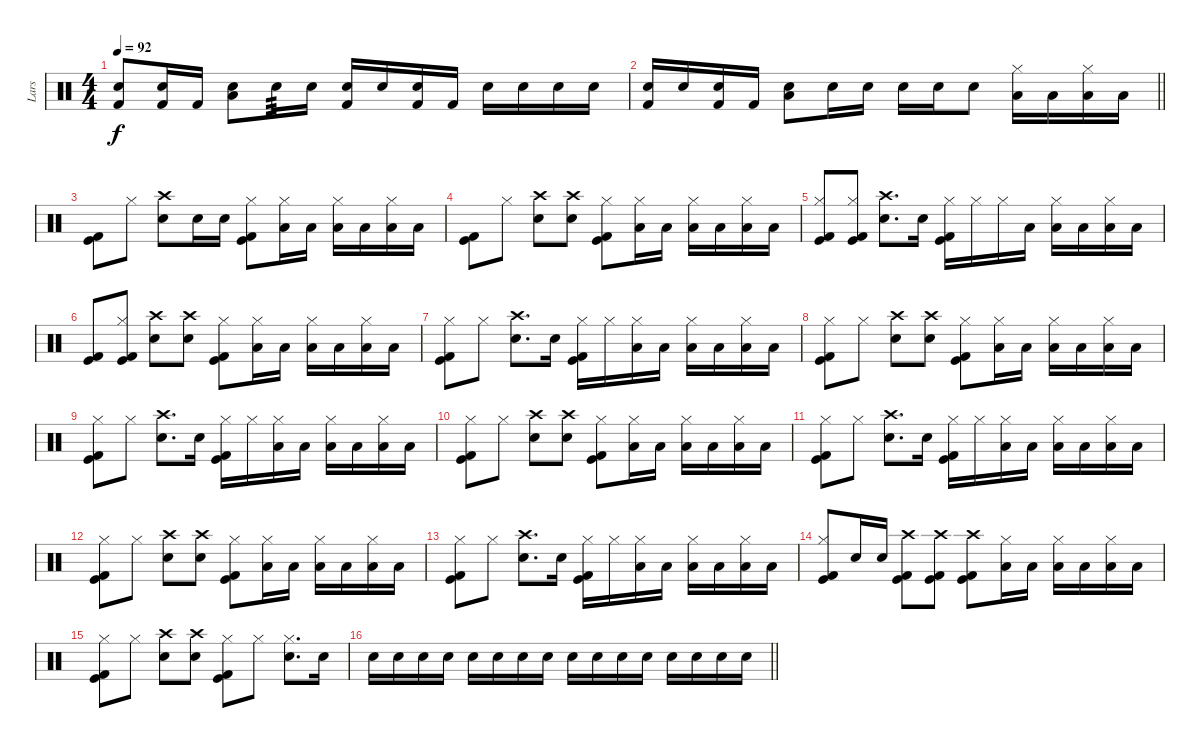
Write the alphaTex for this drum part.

\track ("Lars" "Lars") {instrument percussion}
\staff {score}
\articulation defaults
\ts (4 4)
\tempo 92
\clef neutral
\ks c
("Electric Snare (hit)" "Kick (hit) 2").8{dy f} ("Electric Snare (hit)" "Kick (hit) 2").16 "Kick (hit) 2".16 ("Electric Snare (hit)" "Low Tom (hit)").8 "Electric Snare (hit)".16{tp 3} "Electric Snare (hit)".16 ("Electric Snare (hit)" "Kick (hit) 2").16 "Electric Snare (hit)".16 ("Electric Snare (hit)" "Kick (hit) 2").16 "Kick (hit) 2".16 "Electric Snare (hit)".16 "Electric Snare (hit)".16 "Electric Snare (hit)".16 "Electric Snare (hit)".16 |
\barLineRight lightlight
("Electric Snare (hit)" "Kick (hit) 2").16 "Electric Snare (hit)".16 ("Electric Snare (hit)" "Kick (hit) 2").16 "Kick (hit) 2".16 ("Electric Snare (hit)" "Low Tom (hit)").8 "Electric Snare (hit)".16 "Electric Snare (hit)".16 "Electric Snare (hit)".16 "Electric Snare (hit)".16 "Electric Snare (hit)".8 ("Hi-Hat (closed)" "Low Floor Tom (hit)").16 "Low Floor Tom (hit)".16 ("Hi-Hat (closed)" "Low Floor Tom (hit)").16 "Low Floor Tom (hit)".16 |
\section ("" "")
("Kick (hit)" "Kick (hit) 2").8 "Hi-Hat (closed)".8 ("Crash high (hit)" "Electric Snare (hit)").8 "Electric Snare (hit)".16 "Electric Snare (hit)".16 ("Hi-Hat (closed)" "Kick (hit)" "Kick (hit) 2").8 ("Hi-Hat (closed)" "Low Floor Tom (hit)").16 "Low Floor Tom (hit)".16 ("Hi-Hat (closed)" "Low Floor Tom (hit)").16 "Low Floor Tom (hit)".16 ("Hi-Hat (closed)" "Low Floor Tom (hit)").16 "Low Floor Tom (hit)".16 |
("Kick (hit)" "Kick (hit) 2").8 "Hi-Hat (closed)".8 ("Crash high (hit)" "Electric Snare (hit)").8 ("Crash high (hit)" "Electric Snare (hit)").8 ("Hi-Hat (closed)" "Kick (hit)" "Kick (hit) 2").8 ("Hi-Hat (closed)" "Low Floor Tom (hit)").16 "Low Floor Tom (hit)".16 ("Hi-Hat (closed)" "Low Floor Tom (hit)").16 "Low Floor Tom (hit)".16 ("Hi-Hat (closed)" "Low Floor Tom (hit)").16 "Low Floor Tom (hit)".16 |
("Hi-Hat (closed)" "Kick (hit)" "Kick (hit) 2").8 ("Hi-Hat (closed)" "Kick (hit)" "Kick (hit) 2").8 ("Crash high (hit)" "Electric Snare (hit)").8{d} "Electric Snare (hit)".16 ("Hi-Hat (closed)" "Kick (hit)" "Kick (hit) 2").16 "Hi-Hat (closed)".16 "Hi-Hat (closed)".16 "Low Floor Tom (hit)".16 ("Hi-Hat (closed)" "Low Floor Tom (hit)").16 "Low Floor Tom (hit)".16 ("Hi-Hat (closed)" "Low Floor Tom (hit)").16 "Low Floor Tom (hit)".16 |
("Kick (hit)" "Kick (hit) 2").8 ("Hi-Hat (closed)" "Kick (hit)" "Kick (hit) 2").8 ("Crash high (hit)" "Electric Snare (hit)").8 ("Crash high (hit)" "Electric Snare (hit)").8 ("Hi-Hat (closed)" "Kick (hit)" "Kick (hit) 2").8 ("Hi-Hat (closed)" "Low Floor Tom (hit)").16 "Low Floor Tom (hit)".16 ("Hi-Hat (closed)" "Low Floor Tom (hit)").16 "Low Floor Tom (hit)".16 ("Hi-Hat (closed)" "Low Floor Tom (hit)").16 "Low Floor Tom (hit)".16 |
("Hi-Hat (closed)" "Kick (hit)" "Kick (hit) 2").8 "Hi-Hat (closed)".8 ("Crash high (hit)" "Electric Snare (hit)").8{d} "Electric Snare (hit)".16 ("Hi-Hat (closed)" "Kick (hit)" "Kick (hit) 2").16 "Hi-Hat (closed)".16 ("Hi-Hat (closed)" "Low Floor Tom (hit)").16 "Low Floor Tom (hit)".16 ("Hi-Hat (closed)" "Low Floor Tom (hit)").16 "Low Floor Tom (hit)".16 ("Hi-Hat (closed)" "Low Floor Tom (hit)").16 "Low Floor Tom (hit)".16 |
("Hi-Hat (closed)" "Kick (hit)" "Kick (hit) 2").8 "Hi-Hat (closed)".8 ("Crash high (hit)" "Electric Snare (hit)").8 ("Crash high (hit)" "Electric Snare (hit)").8 ("Hi-Hat (closed)" "Kick (hit)" "Kick (hit) 2").8 ("Hi-Hat (closed)" "Low Floor Tom (hit)").16 "Low Floor Tom (hit)".16 ("Hi-Hat (closed)" "Low Floor Tom (hit)").16 "Low Floor Tom (hit)".16 ("Hi-Hat (closed)" "Low Floor Tom (hit)").16 "Low Floor Tom (hit)".16 |
("Hi-Hat (closed)" "Kick (hit)" "Kick (hit) 2").8 "Hi-Hat (closed)".8 ("Crash high (hit)" "Electric Snare (hit)").8{d} "Electric Snare (hit)".16 ("Hi-Hat (closed)" "Kick (hit)" "Kick (hit) 2").16 "Hi-Hat (closed)".16 ("Hi-Hat (closed)" "Low Floor Tom (hit)").16 "Low Floor Tom (hit)".16 ("Hi-Hat (closed)" "Low Floor Tom (hit)").16 "Low Floor Tom (hit)".16 ("Hi-Hat (closed)" "Low Floor Tom (hit)").16 "Low Floor Tom (hit)".16 |
("Hi-Hat (closed)" "Kick (hit)" "Kick (hit) 2").8 "Hi-Hat (closed)".8 ("Crash high (hit)" "Electric Snare (hit)").8 ("Crash high (hit)" "Electric Snare (hit)").8 ("Hi-Hat (closed)" "Kick (hit)" "Kick (hit) 2").8 ("Hi-Hat (closed)" "Low Floor Tom (hit)").16 "Low Floor Tom (hit)".16 ("Hi-Hat (closed)" "Low Floor Tom (hit)").16 "Low Floor Tom (hit)".16 ("Hi-Hat (closed)" "Low Floor Tom (hit)").16 "Low Floor Tom (hit)".16 |
("Hi-Hat (closed)" "Kick (hit)" "Kick (hit) 2").8 "Hi-Hat (closed)".8 ("Crash high (hit)" "Electric Snare (hit)").8{d} "Electric Snare (hit)".16 ("Hi-Hat (closed)" "Kick (hit)" "Kick (hit) 2").16 "Hi-Hat (closed)".16 ("Hi-Hat (closed)" "Low Floor Tom (hit)").16 "Low Floor Tom (hit)".16 ("Hi-Hat (closed)" "Low Floor Tom (hit)").16 "Low Floor Tom (hit)".16 ("Hi-Hat (closed)" "Low Floor Tom (hit)").16 "Low Floor Tom (hit)".16 |
("Hi-Hat (closed)" "Kick (hit)" "Kick (hit) 2").8 "Hi-Hat (closed)".8 ("Crash high (hit)" "Electric Snare (hit)").8 ("Crash high (hit)" "Electric Snare (hit)").8 ("Hi-Hat (closed)" "Kick (hit)" "Kick (hit) 2").8 ("Hi-Hat (closed)" "Low Floor Tom (hit)").16 "Low Floor Tom (hit)".16 ("Hi-Hat (closed)" "Low Floor Tom (hit)").16 "Low Floor Tom (hit)".16 ("Hi-Hat (closed)" "Low Floor Tom (hit)").16 "Low Floor Tom (hit)".16 |
("Hi-Hat (closed)" "Kick (hit)" "Kick (hit) 2").8 "Hi-Hat (closed)".8 ("Crash high (hit)" "Electric Snare (hit)").8{d} "Electric Snare (hit)".16 ("Hi-Hat (closed)" "Kick (hit)" "Kick (hit) 2").16 "Hi-Hat (closed)".16 ("Hi-Hat (closed)" "Low Floor Tom (hit)").16 "Low Floor Tom (hit)".16 ("Hi-Hat (closed)" "Low Floor Tom (hit)").16 "Low Floor Tom (hit)".16 ("Hi-Hat (closed)" "Low Floor Tom (hit)").16 "Low Floor Tom (hit)".16 |
("Hi-Hat (closed)" "Kick (hit)" "Kick (hit) 2").8 "Electric Snare (hit)".16 "Electric Snare (hit)".16 ("Crash high (hit)" "Kick (hit)" "Kick (hit) 2").8 ("Crash high (hit)" "Kick (hit)" "Kick (hit) 2").8 ("Crash high (hit)" "Kick (hit)" "Kick (hit) 2").8 ("Hi-Hat (closed)" "Low Floor Tom (hit)").16 "Low Floor Tom (hit)".16 ("Hi-Hat (closed)" "Low Floor Tom (hit)").16 "Low Floor Tom (hit)".16 ("Hi-Hat (closed)" "Low Floor Tom (hit)").16 "Low Floor Tom (hit)".16 |
("Hi-Hat (closed)" "Kick (hit)" "Kick (hit) 2").8 "Hi-Hat (closed)".8 ("Crash high (hit)" "Electric Snare (hit)").8 ("Crash high (hit)" "Electric Snare (hit)").8 ("Hi-Hat (closed)" "Kick (hit)" "Kick (hit) 2").8 "Hi-Hat (closed)".8 ("Hi-Hat (closed)" "Electric Snare (hit)").8{d} "Electric Snare (hit)".16 |
\barLineRight lightlight "Electric Snare (hit)".16 "Electric Snare (hit)".16 "Electric Snare (hit)".16 "Electric Snare (hit)".16 "Electric Snare (hit)".16 "Electric Snare (hit)".16 "Electric Snare (hit)".16 "Electric Snare (hit)".16 "Electric Snare (hit)".16 "Electric Snare (hit)".16 "Electric Snare (hit)".16 "Electric Snare (hit)".16 "Electric Snare (hit)".16 "Electric Snare (hit)".16 "Electric Snare (hit)".16 "Electric Snare (hit)".16
